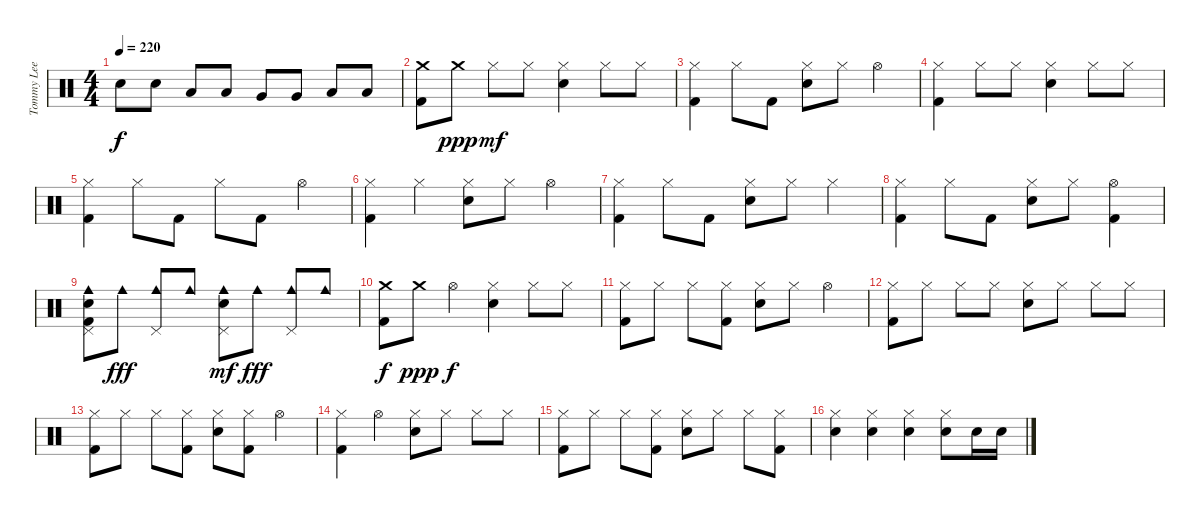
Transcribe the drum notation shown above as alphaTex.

\track ("Tommy Lee - Drums" "Tommy Lee ") {instrument percussion}
\staff {score}
\articulation defaults
\ts (4 4)
\tempo 220
\clef neutral
\ks c "Electric Snare (hit)".8{dy f} "Electric Snare (hit)".8 "Low Tom (hit)".8 "Low Tom (hit)".8 "Very Low Tom (hit)".8 "Very Low Tom (hit)".8 "Low Floor Tom (hit)".8 "Low Floor Tom (hit)".8
|
("Crash medium (hit)" "Kick (hit) 2").8 "Crash medium (hit)".8{dy ppp} "Hi-Hat (closed)".8{dy mf} "Hi-Hat (closed)".8 ("Hi-Hat (closed)" "Electric Snare (hit)").4 "Hi-Hat (closed)".8 "Hi-Hat (closed)".8 |
("Hi-Hat (closed)" "Kick (hit) 2").4 "Hi-Hat (closed)".8 "Kick (hit) 2".8 ("Hi-Hat (closed)" "Electric Snare (hit)").8 "Hi-Hat (closed)".8 "Hi-Hat (open)".4 |
("Hi-Hat (closed)" "Kick (hit) 2").4 "Hi-Hat (closed)".8 "Hi-Hat (closed)".8 ("Hi-Hat (closed)" "Electric Snare (hit)").4 "Hi-Hat (closed)".8 "Hi-Hat (closed)".8 |
("Hi-Hat (closed)" "Kick (hit) 2").4 "Hi-Hat (closed)".8 "Kick (hit) 2".8 "Hi-Hat (closed)".8 "Kick (hit) 2".8 "Hi-Hat (open)".4 |
("Hi-Hat (closed)" "Kick (hit) 2").4 "Hi-Hat (closed)".4 ("Hi-Hat (closed)" "Electric Snare (hit)").8 "Hi-Hat (closed)".8 "Hi-Hat (open)".4 |
("Hi-Hat (closed)" "Kick (hit) 2").4 "Hi-Hat (closed)".8 "Kick (hit) 2".8 ("Hi-Hat (closed)" "Electric Snare (hit)").8 "Hi-Hat (closed)".8 "Hi-Hat (closed)".4 |
("Hi-Hat (closed)" "Kick (hit) 2").4 "Hi-Hat (closed)".8 "Kick (hit) 2".8 ("Hi-Hat (closed)" "Electric Snare (hit)").8 "Hi-Hat (closed)".8 ("Hi-Hat (open)" "Kick (hit) 2").4 |
("Pedal Hi-Hat (hit)" "Cowbell medium (hit)" "Electric Snare (hit)" "Kick (hit) 2").8 "Cowbell medium (hit)".8{dy fff} ("Pedal Hi-Hat (hit)" "Cowbell medium (hit)").8 "Cowbell medium (hit)".8 ("Pedal Hi-Hat (hit)" "Cowbell medium (hit)" "Electric Snare (hit)").8{dy mf} "Cowbell medium (hit)".8{dy fff} ("Pedal Hi-Hat (hit)" "Cowbell medium (hit)").8 "Cowbell medium (hit)".8 |
("Crash medium (hit)" "Kick (hit) 2").8{dy f} "Crash medium (hit)".8{dy ppp} "Hi-Hat (open)".4{dy f} ("Hi-Hat (closed)" "Electric Snare (hit)").4 "Hi-Hat (closed)".8 "Hi-Hat (closed)".8 |
("Hi-Hat (closed)" "Kick (hit) 2").8 "Hi-Hat (closed)".8 "Hi-Hat (closed)".8 ("Hi-Hat (closed)" "Kick (hit) 2").8 ("Hi-Hat (closed)" "Electric Snare (hit)").8 "Hi-Hat (closed)".8 "Hi-Hat (open)".4 |
("Hi-Hat (closed)" "Kick (hit) 2").8 "Hi-Hat (closed)".8 "Hi-Hat (closed)".8 "Hi-Hat (closed)".8 ("Hi-Hat (closed)" "Electric Snare (hit)").8 "Hi-Hat (closed)".8 "Hi-Hat (closed)".8 "Hi-Hat (closed)".8 |
("Hi-Hat (closed)" "Kick (hit) 2").8 "Hi-Hat (closed)".8 "Hi-Hat (closed)".8 ("Hi-Hat (closed)" "Kick (hit) 2").8 ("Hi-Hat (closed)" "Electric Snare (hit)").8 ("Hi-Hat (closed)" "Kick (hit) 2").8 "Hi-Hat (open)".4 |
("Hi-Hat (closed)" "Kick (hit) 2").4 "Hi-Hat (open)".4 ("Hi-Hat (closed)" "Electric Snare (hit)").8 "Hi-Hat (closed)".8 "Hi-Hat (closed)".8 "Hi-Hat (closed)".8 |
("Hi-Hat (closed)" "Kick (hit) 2").8 "Hi-Hat (closed)".8 "Hi-Hat (closed)".8 ("Hi-Hat (closed)" "Kick (hit) 2").8 ("Hi-Hat (closed)" "Electric Snare (hit)").8 "Hi-Hat (closed)".8 "Hi-Hat (closed)".8 ("Hi-Hat (closed)" "Kick (hit) 2").8 |
("Hi-Hat (closed)" "Electric Snare (hit)").4 ("Hi-Hat (closed)" "Electric Snare (hit)").4 ("Hi-Hat (closed)" "Electric Snare (hit)").4 ("Hi-Hat (closed)" "Electric Snare (hit)").8 "Electric Snare (hit)".16 "Electric Snare (hit)".16
